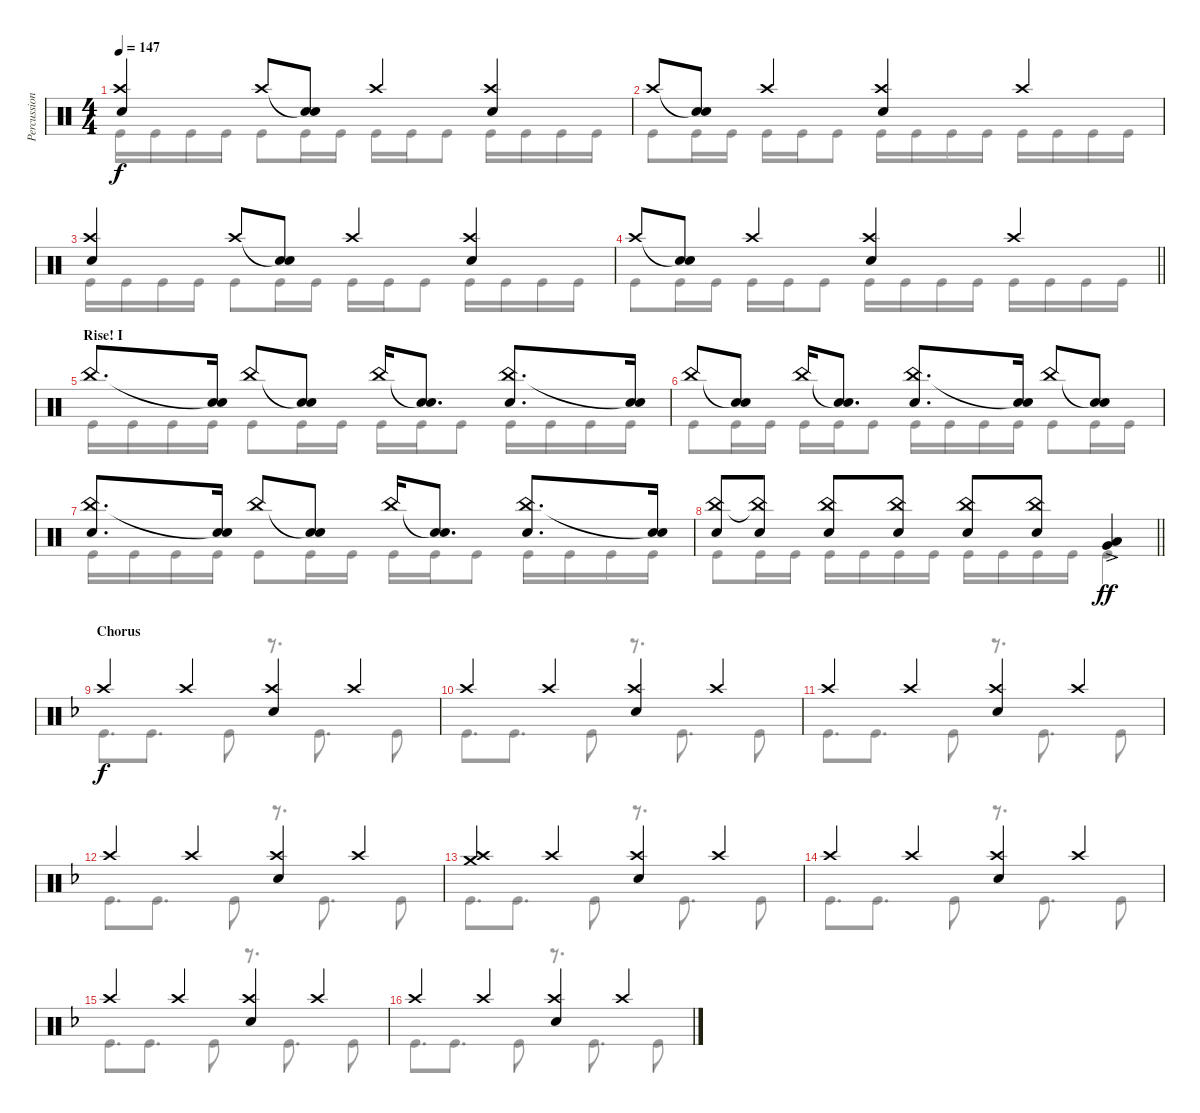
\track ("Percussion" "Percussion") {instrument percussion}
\staff {score}
\articulation defaults
\voice
\ts (4 4)
\tempo 147
\clef neutral
\ks aminor
("Crash high (hit)" "Electric Snare (hit)").4{dy f} "Crash high (hit)".8 ("Snare (hit)"{t} "Electric Snare (hit)").8 "Crash high (hit)".4 ("Crash high (hit)" "Electric Snare (hit)").4 |
"Crash high (hit)".8 ("Snare (hit)"{t} "Electric Snare (hit)").8 "Crash high (hit)".4 ("Crash high (hit)" "Electric Snare (hit)").4 "Crash high (hit)".4 |
("Crash high (hit)" "Electric Snare (hit)").4 "Crash high (hit)".8 ("Snare (hit)"{t} "Electric Snare (hit)").8 "Crash high (hit)".4 ("Crash high (hit)" "Electric Snare (hit)").4 |
\barLineRight lightlight "Crash high (hit)".8
("Snare (hit)"{t} "Electric Snare (hit)").8 "Crash high (hit)".4 ("Crash high (hit)" "Electric Snare (hit)").4 "Crash high (hit)".4 |
\section ("" "Rise! I")
"China (hit)".8{d} ("Snare (hit)"{t} "Electric Snare (hit)").16 "China (hit)".8 ("Snare (hit)"{t} "Electric Snare (hit)").8 "China (hit)".16 ("Snare (hit)"{t} "Electric Snare (hit)").8{d} ("China (hit)" "Electric Snare (hit)").8{d} ("Snare (hit)"{t} "Electric Snare (hit)").16 |
"China (hit)".8 ("Snare (hit)"{t} "Electric Snare (hit)").8 "China (hit)".16 ("Snare (hit)"{t} "Electric Snare (hit)").8{d} ("China (hit)" "Electric Snare (hit)").8{d} ("Snare (hit)"{t} "Electric Snare (hit)").16 "China (hit)".8 ("Snare (hit)"{t} "Electric Snare (hit)").8 |
("China (hit)" "Electric Snare (hit)").8{d} ("Snare (hit)"{t} "Electric Snare (hit)").16 "China (hit)".8 ("Snare (hit)"{t} "Electric Snare (hit)").8 "China (hit)".16 ("Snare (hit)"{t} "Electric Snare (hit)").8{d} ("China (hit)" "Electric Snare (hit)").8{d} ("Snare (hit)"{t} "Electric Snare (hit)").16 |
\barLineRight lightlight
("China (hit)" "Electric Snare (hit)").8 ("China (hit)"{t} "Electric Snare (hit)").8 ("China (hit)" "Electric Snare (hit)").8 ("China (hit)" "Electric Snare (hit)").8 ("China (hit)" "Electric Snare (hit)").8 ("China (hit)" "Electric Snare (hit)").8 ("Low Tom (hit)"{ac} "Very Low Tom (hit)"{ac}).4{dy ff} |
\section ("" "Chorus")
\ks dminor "Crash high (hit)".4{dy f} "Crash high (hit)".4
("Crash high (hit)" "Electric Snare (hit)").4 "Crash high (hit)".4 |
"Crash high (hit)".4 "Crash high (hit)".4 ("Crash high (hit)" "Electric Snare (hit)").4 "Crash high (hit)".4 |
"Crash high (hit)".4 "Crash high (hit)".4 ("Crash high (hit)" "Electric Snare (hit)").4 "Crash high (hit)".4 |
"Crash high (hit)".4 "Crash high (hit)".4 ("Crash high (hit)" "Electric Snare (hit)").4 "Crash high (hit)".4 |
("Crash medium (hit)" "Crash high (hit)").4 "Crash high (hit)".4 ("Crash high (hit)" "Electric Snare (hit)").4 "Crash high (hit)".4 |
"Crash high (hit)".4 "Crash high (hit)".4 ("Crash high (hit)" "Electric Snare (hit)").4 "Crash high (hit)".4 |
"Crash high (hit)".4 "Crash high (hit)".4 ("Crash high (hit)" "Electric Snare (hit)").4 "Crash high (hit)".4 |
"Crash high (hit)".4 "Crash high (hit)".4 ("Crash high (hit)" "Electric Snare (hit)").4 "Crash high (hit)".4
\voice
\clef neutral
\ottava regular
\simile none
\ks aminor "Kick (hit)".16{dy f} "Kick (hit)".16 "Kick (hit)".16 "Kick (hit)".16 "Kick (hit)".8 "Kick (hit)".16 "Kick (hit)".16 "Kick (hit)".16 "Kick (hit)".16 "Kick (hit)".8 "Kick (hit)".16 "Kick (hit)".16 "Kick (hit)".16 "Kick (hit)".16
|
"Kick (hit)".8 "Kick (hit)".16 "Kick (hit)".16 "Kick (hit)".16 "Kick (hit)".16 "Kick (hit)".8 "Kick (hit)".16 "Kick (hit)".16 "Kick (hit)".16 "Kick (hit)".16 "Kick (hit)".16 "Kick (hit)".16 "Kick (hit)".16 "Kick (hit)".16 |
"Kick (hit)".16 "Kick (hit)".16 "Kick (hit)".16 "Kick (hit)".16 "Kick (hit)".8 "Kick (hit)".16 "Kick (hit)".16 "Kick (hit)".16 "Kick (hit)".16 "Kick (hit)".8 "Kick (hit)".16 "Kick (hit)".16 "Kick (hit)".16 "Kick (hit)".16 |
\barLineRight lightlight "Kick (hit)".8 "Kick (hit)".16 "Kick (hit)".16 "Kick (hit)".16 "Kick (hit)".16 "Kick (hit)".8 "Kick (hit)".16 "Kick (hit)".16 "Kick (hit)".16 "Kick (hit)".16 "Kick (hit)".16 "Kick (hit)".16 "Kick (hit)".16 "Kick (hit)".16
|
"Kick (hit)".16 "Kick (hit)".16 "Kick (hit)".16 "Kick (hit)".16 "Kick (hit)".8 "Kick (hit)".16 "Kick (hit)".16 "Kick (hit)".16 "Kick (hit)".16 "Kick (hit)".8 "Kick (hit)".16 "Kick (hit)".16 "Kick (hit)".16 "Kick (hit)".16 |
"Kick (hit)".8 "Kick (hit)".16 "Kick (hit)".16 "Kick (hit)".16 "Kick (hit)".16 "Kick (hit)".8 "Kick (hit)".16 "Kick (hit)".16 "Kick (hit)".16 "Kick (hit)".16 "Kick (hit)".8 "Kick (hit)".16 "Kick (hit)".16 |
"Kick (hit)".16 "Kick (hit)".16 "Kick (hit)".16 "Kick (hit)".16 "Kick (hit)".8 "Kick (hit)".16 "Kick (hit)".16 "Kick (hit)".16 "Kick (hit)".16 "Kick (hit)".8 "Kick (hit)".16 "Kick (hit)".16 "Kick (hit)".16 "Kick (hit)".16 |
\barLineRight lightlight "Kick (hit)".8 "Kick (hit)".16 "Kick (hit)".16 "Kick (hit)".16 "Kick (hit)".16 "Kick (hit)".16 "Kick (hit)".16 "Kick (hit)".16 "Kick (hit)".16 "Kick (hit)".16 "Kick (hit)".16 "Kick (hit)".4
|
\ks dminor "Kick (hit)".8{d} "Kick (hit)".8{d} "Kick (hit)".8
r.8{d} "Kick (hit)".8{d} "Kick (hit)".8 |
"Kick (hit)".8{d} "Kick (hit)".8{d} "Kick (hit)".8 r.8{d} "Kick (hit)".8{d} "Kick (hit)".8 |
"Kick (hit)".8{d} "Kick (hit)".8{d} "Kick (hit)".8 r.8{d} "Kick (hit)".8{d} "Kick (hit)".8 |
"Kick (hit)".8{d} "Kick (hit)".8{d} "Kick (hit)".8 r.8{d} "Kick (hit)".8{d} "Kick (hit)".8 |
"Kick (hit)".8{d} "Kick (hit)".8{d} "Kick (hit)".8 r.8{d} "Kick (hit)".8{d} "Kick (hit)".8 |
"Kick (hit)".8{d} "Kick (hit)".8{d} "Kick (hit)".8 r.8{d} "Kick (hit)".8{d} "Kick (hit)".8 |
"Kick (hit)".8{d} "Kick (hit)".8{d} "Kick (hit)".8 r.8{d} "Kick (hit)".8{d} "Kick (hit)".8 |
"Kick (hit)".8{d} "Kick (hit)".8{d} "Kick (hit)".8 r.8{d} "Kick (hit)".8{d} "Kick (hit)".8
